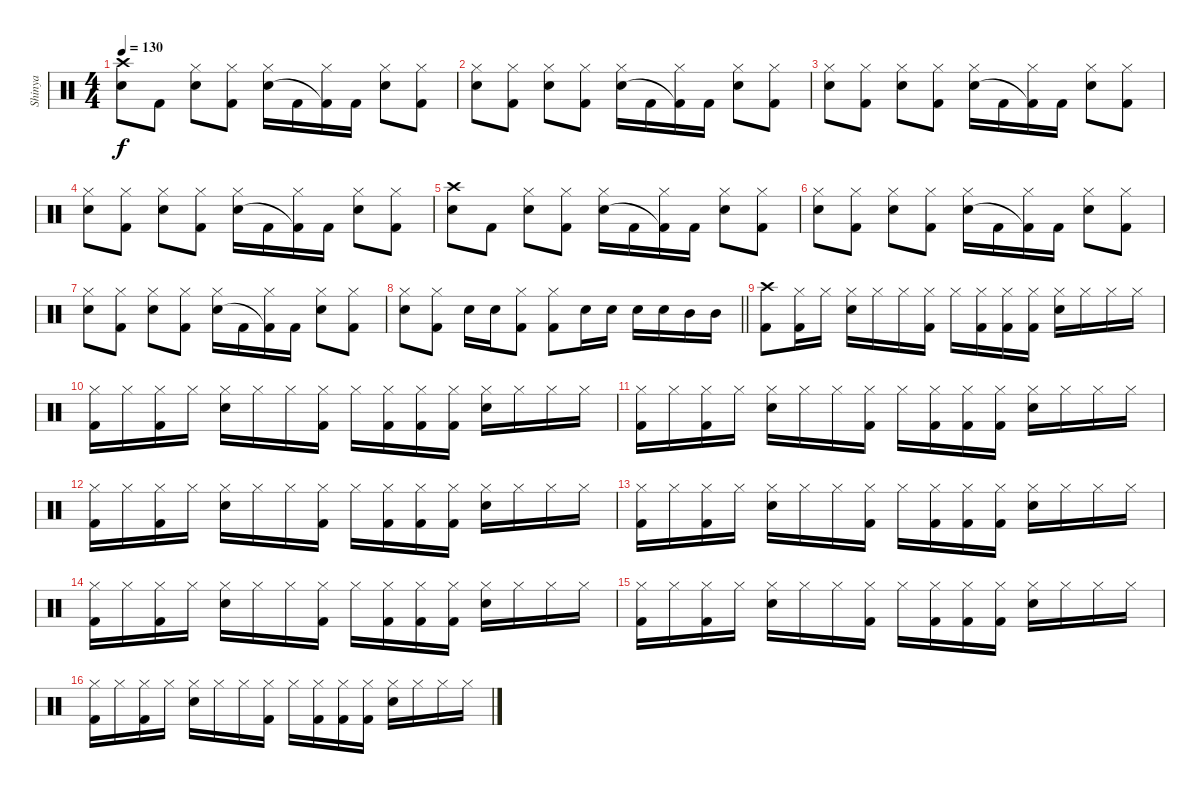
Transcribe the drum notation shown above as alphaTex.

\track ("Shinya" "Shinya") {instrument percussion}
\staff {score}
\articulation defaults
\ts (4 4)
\tempo 130
\clef neutral
\ks c
("Crash high (hit)" "Electric Snare (hit)").8{dy f} "Kick (hit) 2".8 ("Hi-Hat (closed)" "Electric Snare (hit)").8 ("Hi-Hat (closed)" "Kick (hit) 2").8 ("Hi-Hat (closed)" "Electric Snare (hit)").16 "Kick (hit) 2".16 ("Hi-Hat (closed)" "Kick (hit) 2"{t}).16 "Kick (hit) 2".16 ("Hi-Hat (closed)" "Electric Snare (hit)").8 ("Hi-Hat (closed)" "Kick (hit) 2").8 |
("Hi-Hat (closed)" "Electric Snare (hit)").8 ("Hi-Hat (closed)" "Kick (hit) 2").8 ("Hi-Hat (closed)" "Electric Snare (hit)").8 ("Hi-Hat (closed)" "Kick (hit) 2").8 ("Hi-Hat (closed)" "Electric Snare (hit)").16 "Kick (hit) 2".16 ("Hi-Hat (closed)" "Kick (hit) 2"{t}).16 "Kick (hit) 2".16 ("Hi-Hat (closed)" "Electric Snare (hit)").8 ("Hi-Hat (closed)" "Kick (hit) 2").8 |
("Hi-Hat (closed)" "Electric Snare (hit)").8 ("Hi-Hat (closed)" "Kick (hit) 2").8 ("Hi-Hat (closed)" "Electric Snare (hit)").8 ("Hi-Hat (closed)" "Kick (hit) 2").8 ("Hi-Hat (closed)" "Electric Snare (hit)").16 "Kick (hit) 2".16 ("Hi-Hat (closed)" "Kick (hit) 2"{t}).16 "Kick (hit) 2".16 ("Hi-Hat (closed)" "Electric Snare (hit)").8 ("Hi-Hat (closed)" "Kick (hit) 2").8 |
("Hi-Hat (closed)" "Electric Snare (hit)").8 ("Hi-Hat (closed)" "Kick (hit) 2").8 ("Hi-Hat (closed)" "Electric Snare (hit)").8 ("Hi-Hat (closed)" "Kick (hit) 2").8 ("Hi-Hat (closed)" "Electric Snare (hit)").16 "Kick (hit) 2".16 ("Hi-Hat (closed)" "Kick (hit) 2"{t}).16 "Kick (hit) 2".16 ("Hi-Hat (closed)" "Electric Snare (hit)").8 ("Hi-Hat (closed)" "Kick (hit) 2").8 |
("Crash high (hit)" "Electric Snare (hit)").8 "Kick (hit) 2".8 ("Hi-Hat (closed)" "Electric Snare (hit)").8 ("Hi-Hat (closed)" "Kick (hit) 2").8 ("Hi-Hat (closed)" "Electric Snare (hit)").16 "Kick (hit) 2".16 ("Hi-Hat (closed)" "Kick (hit) 2"{t}).16 "Kick (hit) 2".16 ("Hi-Hat (closed)" "Electric Snare (hit)").8 ("Hi-Hat (closed)" "Kick (hit) 2").8 |
("Hi-Hat (closed)" "Electric Snare (hit)").8 ("Hi-Hat (closed)" "Kick (hit) 2").8 ("Hi-Hat (closed)" "Electric Snare (hit)").8 ("Hi-Hat (closed)" "Kick (hit) 2").8 ("Hi-Hat (closed)" "Electric Snare (hit)").16 "Kick (hit) 2".16 ("Hi-Hat (closed)" "Kick (hit) 2"{t}).16 "Kick (hit) 2".16 ("Hi-Hat (closed)" "Electric Snare (hit)").8 ("Hi-Hat (closed)" "Kick (hit) 2").8 |
("Hi-Hat (closed)" "Electric Snare (hit)").8 ("Hi-Hat (closed)" "Kick (hit) 2").8 ("Hi-Hat (closed)" "Electric Snare (hit)").8 ("Hi-Hat (closed)" "Kick (hit) 2").8 ("Hi-Hat (closed)" "Electric Snare (hit)").16 "Kick (hit) 2".16 ("Hi-Hat (closed)" "Kick (hit) 2"{t}).16 "Kick (hit) 2".16 ("Hi-Hat (closed)" "Electric Snare (hit)").8 ("Hi-Hat (closed)" "Kick (hit) 2").8 |
\barLineRight lightlight
("Hi-Hat (closed)" "Electric Snare (hit)").8 ("Hi-Hat (closed)" "Kick (hit) 2").8 "Electric Snare (hit)".16 "Electric Snare (hit)".16 ("Hi-Hat (closed)" "Kick (hit) 2").8 ("Hi-Hat (closed)" "Kick (hit) 2").8 "Electric Snare (hit)".16 "Electric Snare (hit)".16 "Electric Snare (hit)".16 "Electric Snare (hit)".16 "Mid Tom (hit)".16 "Mid Tom (hit)".16 |
("Crash high (hit)" "Kick (hit) 2").8 ("Hi-Hat (closed)" "Kick (hit) 2").16 "Hi-Hat (closed)".16 ("Hi-Hat (closed)" "Electric Snare (hit)").16 "Hi-Hat (closed)".16 "Hi-Hat (closed)".16 ("Hi-Hat (closed)" "Kick (hit) 2").16 "Hi-Hat (closed)".16 ("Hi-Hat (closed)" "Kick (hit) 2").16 ("Hi-Hat (closed)" "Kick (hit) 2").16 ("Hi-Hat (closed)" "Kick (hit) 2").16 ("Hi-Hat (closed)" "Electric Snare (hit)").16 "Hi-Hat (closed)".16 "Hi-Hat (closed)".16 "Hi-Hat (closed)".16 |
("Hi-Hat (closed)" "Kick (hit) 2").16 "Hi-Hat (closed)".16 ("Hi-Hat (closed)" "Kick (hit) 2").16 "Hi-Hat (closed)".16 ("Hi-Hat (closed)" "Electric Snare (hit)").16 "Hi-Hat (closed)".16 "Hi-Hat (closed)".16 ("Hi-Hat (closed)" "Kick (hit) 2").16 "Hi-Hat (closed)".16 ("Hi-Hat (closed)" "Kick (hit) 2").16 ("Hi-Hat (closed)" "Kick (hit) 2").16 ("Hi-Hat (closed)" "Kick (hit) 2").16 ("Hi-Hat (closed)" "Electric Snare (hit)").16 "Hi-Hat (closed)".16 "Hi-Hat (closed)".16 "Hi-Hat (closed)".16 |
("Hi-Hat (closed)" "Kick (hit) 2").16 "Hi-Hat (closed)".16 ("Hi-Hat (closed)" "Kick (hit) 2").16 "Hi-Hat (closed)".16 ("Hi-Hat (closed)" "Electric Snare (hit)").16 "Hi-Hat (closed)".16 "Hi-Hat (closed)".16 ("Hi-Hat (closed)" "Kick (hit) 2").16 "Hi-Hat (closed)".16 ("Hi-Hat (closed)" "Kick (hit) 2").16 ("Hi-Hat (closed)" "Kick (hit) 2").16 ("Hi-Hat (closed)" "Kick (hit) 2").16 ("Hi-Hat (closed)" "Electric Snare (hit)").16 "Hi-Hat (closed)".16 "Hi-Hat (closed)".16 "Hi-Hat (closed)".16 |
("Hi-Hat (closed)" "Kick (hit) 2").16 "Hi-Hat (closed)".16 ("Hi-Hat (closed)" "Kick (hit) 2").16 "Hi-Hat (closed)".16 ("Hi-Hat (closed)" "Electric Snare (hit)").16 "Hi-Hat (closed)".16 "Hi-Hat (closed)".16 ("Hi-Hat (closed)" "Kick (hit) 2").16 "Hi-Hat (closed)".16 ("Hi-Hat (closed)" "Kick (hit) 2").16 ("Hi-Hat (closed)" "Kick (hit) 2").16 ("Hi-Hat (closed)" "Kick (hit) 2").16 ("Hi-Hat (closed)" "Electric Snare (hit)").16 "Hi-Hat (closed)".16 "Hi-Hat (closed)".16 "Hi-Hat (closed)".16 |
("Hi-Hat (closed)" "Kick (hit) 2").16 "Hi-Hat (closed)".16 ("Hi-Hat (closed)" "Kick (hit) 2").16 "Hi-Hat (closed)".16 ("Hi-Hat (closed)" "Electric Snare (hit)").16 "Hi-Hat (closed)".16 "Hi-Hat (closed)".16 ("Hi-Hat (closed)" "Kick (hit) 2").16 "Hi-Hat (closed)".16 ("Hi-Hat (closed)" "Kick (hit) 2").16 ("Hi-Hat (closed)" "Kick (hit) 2").16 ("Hi-Hat (closed)" "Kick (hit) 2").16 ("Hi-Hat (closed)" "Electric Snare (hit)").16 "Hi-Hat (closed)".16 "Hi-Hat (closed)".16 "Hi-Hat (closed)".16 |
("Hi-Hat (closed)" "Kick (hit) 2").16 "Hi-Hat (closed)".16 ("Hi-Hat (closed)" "Kick (hit) 2").16 "Hi-Hat (closed)".16 ("Hi-Hat (closed)" "Electric Snare (hit)").16 "Hi-Hat (closed)".16 "Hi-Hat (closed)".16 ("Hi-Hat (closed)" "Kick (hit) 2").16 "Hi-Hat (closed)".16 ("Hi-Hat (closed)" "Kick (hit) 2").16 ("Hi-Hat (closed)" "Kick (hit) 2").16 ("Hi-Hat (closed)" "Kick (hit) 2").16 ("Hi-Hat (closed)" "Electric Snare (hit)").16 "Hi-Hat (closed)".16 "Hi-Hat (closed)".16 "Hi-Hat (closed)".16 |
("Hi-Hat (closed)" "Kick (hit) 2").16 "Hi-Hat (closed)".16 ("Hi-Hat (closed)" "Kick (hit) 2").16 "Hi-Hat (closed)".16 ("Hi-Hat (closed)" "Electric Snare (hit)").16 "Hi-Hat (closed)".16 "Hi-Hat (closed)".16 ("Hi-Hat (closed)" "Kick (hit) 2").16 "Hi-Hat (closed)".16 ("Hi-Hat (closed)" "Kick (hit) 2").16 ("Hi-Hat (closed)" "Kick (hit) 2").16 ("Hi-Hat (closed)" "Kick (hit) 2").16 ("Hi-Hat (closed)" "Electric Snare (hit)").16 "Hi-Hat (closed)".16 "Hi-Hat (closed)".16 "Hi-Hat (closed)".16 |
("Hi-Hat (closed)" "Kick (hit) 2").16 "Hi-Hat (closed)".16 ("Hi-Hat (closed)" "Kick (hit) 2").16 "Hi-Hat (closed)".16 ("Hi-Hat (closed)" "Electric Snare (hit)").16 "Hi-Hat (closed)".16 "Hi-Hat (closed)".16 ("Hi-Hat (closed)" "Kick (hit) 2").16 "Hi-Hat (closed)".16 ("Hi-Hat (closed)" "Kick (hit) 2").16 ("Hi-Hat (closed)" "Kick (hit) 2").16 ("Hi-Hat (closed)" "Kick (hit) 2").16 ("Hi-Hat (closed)" "Electric Snare (hit)").16 "Hi-Hat (closed)".16 "Hi-Hat (closed)".16 "Hi-Hat (closed)".16
